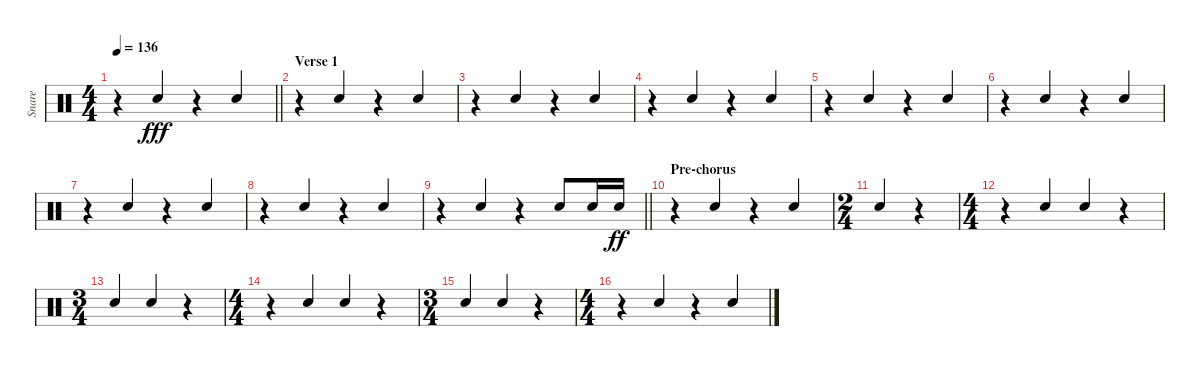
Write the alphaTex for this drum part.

\track ("Snare" "Snare") {instrument percussion}
\staff {score}
\articulation defaults
\ts (4 4)
\tempo 136
\clef neutral
\barLineRight lightlight
\ks c
r.4{dy fff beam merge} "Electric Snare (hit)".4{beam Up} r.4{beam merge} "Electric Snare (hit)".4{beam Up} |
\section ("" "Verse 1")
r.4{beam merge} "Electric Snare (hit)".4{beam Up} r.4{beam merge} "Electric Snare (hit)".4{beam Up} |
r.4{beam merge} "Electric Snare (hit)".4{beam Up} r.4{beam merge} "Electric Snare (hit)".4{beam Up} |
r.4{beam merge} "Electric Snare (hit)".4{beam Up} r.4{beam merge} "Electric Snare (hit)".4{beam Up} |
r.4{beam merge} "Electric Snare (hit)".4{beam Up} r.4{beam merge} "Electric Snare (hit)".4{beam Up} |
r.4{beam merge} "Electric Snare (hit)".4{beam Up} r.4{beam merge} "Electric Snare (hit)".4{beam Up} |
r.4{beam merge} "Electric Snare (hit)".4{beam Up} r.4{beam merge} "Electric Snare (hit)".4{beam Up} |
r.4{beam merge} "Electric Snare (hit)".4{beam Up} r.4{beam merge} "Electric Snare (hit)".4{beam Up} |
\barLineRight lightlight
r.4{beam merge} "Electric Snare (hit)".4{beam Up} r.4 "Electric Snare (hit)".8{beam Up} "Electric Snare (hit)".16{beam Up} "Electric Snare (hit)".16{dy ff beam Up} |
\section ("" "Pre-chorus")
r.4{beam merge} "Electric Snare (hit)".4{beam Up} r.4{beam merge} "Electric Snare (hit)".4{beam Up} |
\ts (2 4)
"Electric Snare (hit)".4{beam Up beam merge} r.4 |
\ts (4 4)
r.4{beam merge} "Electric Snare (hit)".4{beam Up} "Electric Snare (hit)".4{beam Up} r.4 |
\ts (3 4)
"Electric Snare (hit)".4{beam Up beam merge} "Electric Snare (hit)".4{beam Up} r.4 |
\ts (4 4)
r.4{beam merge} "Electric Snare (hit)".4{beam Up} "Electric Snare (hit)".4{beam Up beam merge} r.4 |
\ts (3 4)
"Electric Snare (hit)".4{beam Up beam merge} "Electric Snare (hit)".4{beam Up} r.4 |
\ts (4 4)
r.4{beam merge} "Electric Snare (hit)".4{beam Up} r.4 "Electric Snare (hit)".4{beam Up}
